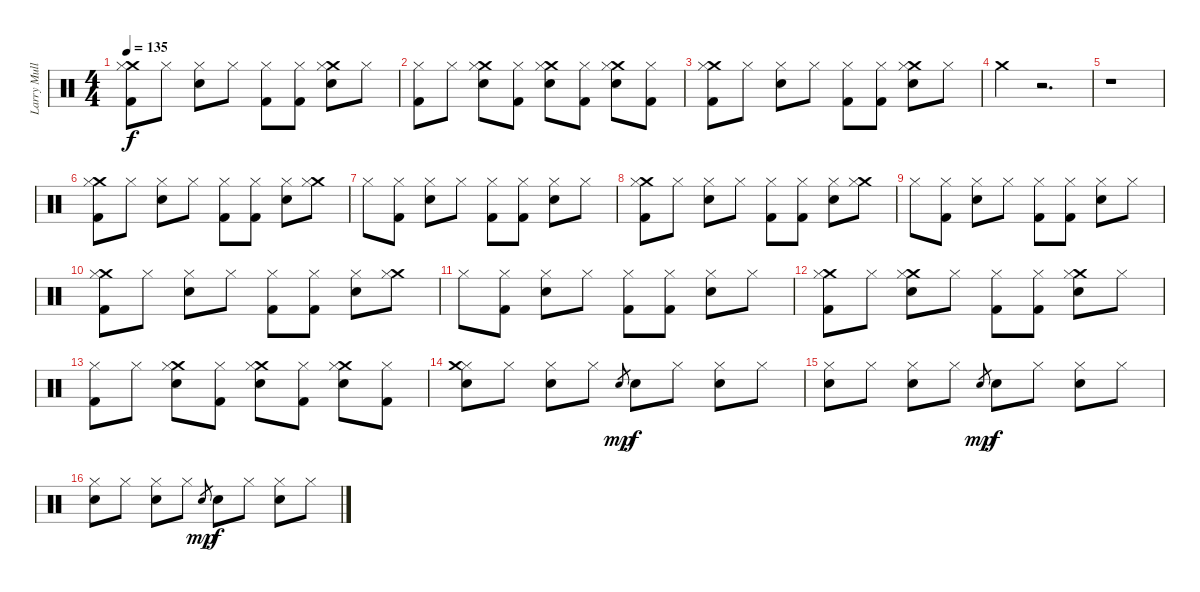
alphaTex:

\track ("Larry Mullen Jr." "Larry Mull") {instrument percussion}
\staff {score}
\articulation defaults
\ts (4 4)
\tempo 135
\clef neutral
\ks c
("Kick (hit) 2" "Crash medium (hit)" "Hi-Hat (closed)").8{dy f} "Hi-Hat (closed)".8 ("Electric Snare (hit)" "Hi-Hat (closed)").8 "Hi-Hat (closed)".8 ("Kick (hit) 2" "Hi-Hat (closed)").8 ("Kick (hit) 2" "Hi-Hat (closed)").8 ("Electric Snare (hit)" "Crash medium (hit)" "Hi-Hat (closed)").8 "Hi-Hat (closed)".8 |
("Kick (hit) 2" "Hi-Hat (closed)").8 "Hi-Hat (closed)".8 ("Electric Snare (hit)" "Crash medium (hit)" "Hi-Hat (closed)").8 ("Kick (hit) 2" "Hi-Hat (closed)").8 ("Electric Snare (hit)" "Crash medium (hit)" "Hi-Hat (closed)").8 ("Kick (hit) 2" "Hi-Hat (closed)").8 ("Electric Snare (hit)" "Crash medium (hit)" "Hi-Hat (closed)").8 ("Kick (hit) 2" "Hi-Hat (closed)").8 |
("Kick (hit) 2" "Crash medium (hit)" "Hi-Hat (closed)").8 "Hi-Hat (closed)".8 ("Electric Snare (hit)" "Hi-Hat (closed)").8 "Hi-Hat (closed)".8 ("Kick (hit) 2" "Hi-Hat (closed)").8 ("Kick (hit) 2" "Hi-Hat (closed)").8 ("Electric Snare (hit)" "Crash medium (hit)" "Hi-Hat (closed)").8 "Hi-Hat (closed)".8 |
"Crash medium (hit)".4 r.2{d} |
r.1 |
("Kick (hit) 2" "Crash medium (hit)" "Hi-Hat (closed)").8 "Hi-Hat (closed)".8 ("Electric Snare (hit)" "Hi-Hat (closed)").8 "Hi-Hat (closed)".8 ("Kick (hit) 2" "Hi-Hat (closed)").8 ("Kick (hit) 2" "Hi-Hat (closed)").8 ("Electric Snare (hit)" "Hi-Hat (closed)").8 ("Crash medium (hit)" "Hi-Hat (closed)").8 |
"Hi-Hat (closed)".8 ("Kick (hit) 2" "Hi-Hat (closed)").8 ("Electric Snare (hit)" "Hi-Hat (closed)").8 "Hi-Hat (closed)".8 ("Kick (hit) 2" "Hi-Hat (closed)").8 ("Kick (hit) 2" "Hi-Hat (closed)").8 ("Electric Snare (hit)" "Hi-Hat (closed)").8 "Hi-Hat (closed)".8 |
("Kick (hit) 2" "Crash medium (hit)" "Hi-Hat (closed)").8 "Hi-Hat (closed)".8 ("Electric Snare (hit)" "Hi-Hat (closed)").8 "Hi-Hat (closed)".8 ("Kick (hit) 2" "Hi-Hat (closed)").8 ("Kick (hit) 2" "Hi-Hat (closed)").8 ("Electric Snare (hit)" "Hi-Hat (closed)").8 ("Crash medium (hit)" "Hi-Hat (closed)").8 |
"Hi-Hat (closed)".8 ("Kick (hit) 2" "Hi-Hat (closed)").8 ("Electric Snare (hit)" "Hi-Hat (closed)").8 "Hi-Hat (closed)".8 ("Kick (hit) 2" "Hi-Hat (closed)").8 ("Kick (hit) 2" "Hi-Hat (closed)").8 ("Electric Snare (hit)" "Hi-Hat (closed)").8 "Hi-Hat (closed)".8 |
("Kick (hit) 2" "Crash medium (hit)" "Hi-Hat (closed)").8 "Hi-Hat (closed)".8 ("Electric Snare (hit)" "Hi-Hat (closed)").8 "Hi-Hat (closed)".8 ("Kick (hit) 2" "Hi-Hat (closed)").8 ("Kick (hit) 2" "Hi-Hat (closed)").8 ("Electric Snare (hit)" "Hi-Hat (closed)").8 ("Crash medium (hit)" "Hi-Hat (closed)").8 |
"Hi-Hat (closed)".8 ("Kick (hit) 2" "Hi-Hat (closed)").8 ("Electric Snare (hit)" "Hi-Hat (closed)").8 "Hi-Hat (closed)".8 ("Kick (hit) 2" "Hi-Hat (closed)").8 ("Kick (hit) 2" "Hi-Hat (closed)").8 ("Electric Snare (hit)" "Hi-Hat (closed)").8 "Hi-Hat (closed)".8 |
("Kick (hit) 2" "Crash medium (hit)" "Hi-Hat (closed)").8 "Hi-Hat (closed)".8 ("Electric Snare (hit)" "Crash medium (hit)" "Hi-Hat (closed)").8 "Hi-Hat (closed)".8 ("Kick (hit) 2" "Hi-Hat (closed)").8 ("Kick (hit) 2" "Hi-Hat (closed)").8 ("Electric Snare (hit)" "Crash medium (hit)" "Hi-Hat (closed)").8 "Hi-Hat (closed)".8 |
("Kick (hit) 2" "Hi-Hat (closed)").8 "Hi-Hat (closed)".8 ("Electric Snare (hit)" "Crash medium (hit)" "Hi-Hat (closed)").8 ("Kick (hit) 2" "Hi-Hat (closed)").8 ("Electric Snare (hit)" "Crash medium (hit)" "Hi-Hat (closed)").8 ("Kick (hit) 2" "Hi-Hat (closed)").8 ("Electric Snare (hit)" "Crash medium (hit)" "Hi-Hat (closed)").8 ("Kick (hit) 2" "Hi-Hat (closed)").8 |
("Electric Snare (hit)" "Hi-Hat (closed)" "Crash medium (hit)").8 "Hi-Hat (closed)".8 ("Electric Snare (hit)" "Hi-Hat (closed)").8 "Hi-Hat (closed)".8 "Electric Snare (hit)".8{gr dy mp} "Electric Snare (hit)".8{dy f} "Hi-Hat (closed)".8 ("Electric Snare (hit)" "Hi-Hat (closed)").8 "Hi-Hat (closed)".8 |
("Electric Snare (hit)" "Hi-Hat (closed)").8 "Hi-Hat (closed)".8 ("Electric Snare (hit)" "Hi-Hat (closed)").8 "Hi-Hat (closed)".8 "Electric Snare (hit)".8{gr dy mp} "Electric Snare (hit)".8{dy f} "Hi-Hat (closed)".8 ("Electric Snare (hit)" "Hi-Hat (closed)").8 "Hi-Hat (closed)".8 |
("Electric Snare (hit)" "Hi-Hat (closed)").8 "Hi-Hat (closed)".8 ("Electric Snare (hit)" "Hi-Hat (closed)").8 "Hi-Hat (closed)".8 "Electric Snare (hit)".8{gr dy mp} "Electric Snare (hit)".8{dy f} "Hi-Hat (closed)".8 ("Electric Snare (hit)" "Hi-Hat (closed)").8 "Hi-Hat (closed)".8
